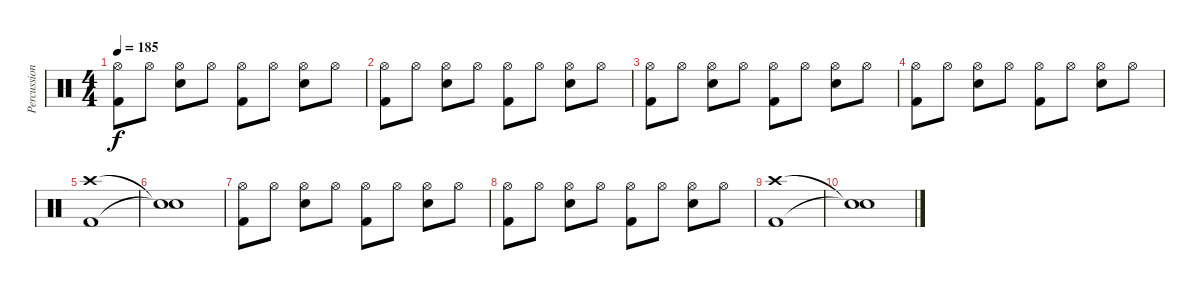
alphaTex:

\track ("Percussion" "Percussion") {instrument percussion}
\staff {score}
\articulation defaults
\ts (4 4)
\tempo 185
\clef neutral
\ks c
("Hi-Hat (open)" "Kick (hit) 2").8{dy f} "Hi-Hat (open)".8 ("Hi-Hat (open)" "Snare (hit) 2").8 "Hi-Hat (open)".8 ("Hi-Hat (open)" "Kick (hit) 2").8 "Hi-Hat (open)".8 ("Hi-Hat (open)" "Snare (hit) 2").8 "Hi-Hat (open)".8 |
("Hi-Hat (open)" "Kick (hit) 2").8 "Hi-Hat (open)".8 ("Hi-Hat (open)" "Snare (hit) 2").8 "Hi-Hat (open)".8 ("Hi-Hat (open)" "Kick (hit) 2").8 "Hi-Hat (open)".8 ("Hi-Hat (open)" "Snare (hit) 2").8 "Hi-Hat (open)".8 |
("Hi-Hat (open)" "Kick (hit) 2").8 "Hi-Hat (open)".8 ("Hi-Hat (open)" "Snare (hit) 2").8 "Hi-Hat (open)".8 ("Hi-Hat (open)" "Kick (hit) 2").8 "Hi-Hat (open)".8 ("Hi-Hat (open)" "Snare (hit) 2").8 "Hi-Hat (open)".8 |
("Hi-Hat (open)" "Kick (hit) 2").8 "Hi-Hat (open)".8 ("Hi-Hat (open)" "Snare (hit) 2").8 "Hi-Hat (open)".8 ("Hi-Hat (open)" "Kick (hit) 2").8 "Hi-Hat (open)".8 ("Hi-Hat (open)" "Snare (hit) 2").8 "Hi-Hat (open)".8 |
("Crash high (hit)" "Kick (hit) 2").1 |
("Snare (hit)"{t} "Snare (hit)"{t}).1 |
("Hi-Hat (open)" "Kick (hit) 2").8 "Hi-Hat (open)".8 ("Hi-Hat (open)" "Snare (hit) 2").8 "Hi-Hat (open)".8 ("Hi-Hat (open)" "Kick (hit) 2").8 "Hi-Hat (open)".8 ("Hi-Hat (open)" "Snare (hit) 2").8 "Hi-Hat (open)".8 |
("Hi-Hat (open)" "Kick (hit) 2").8 "Hi-Hat (open)".8 ("Hi-Hat (open)" "Snare (hit) 2").8 "Hi-Hat (open)".8 ("Hi-Hat (open)" "Kick (hit) 2").8 "Hi-Hat (open)".8 ("Hi-Hat (open)" "Snare (hit) 2").8 "Hi-Hat (open)".8 |
("Crash high (hit)" "Kick (hit) 2").1 |
("Snare (hit)"{t} "Snare (hit)"{t}).1
